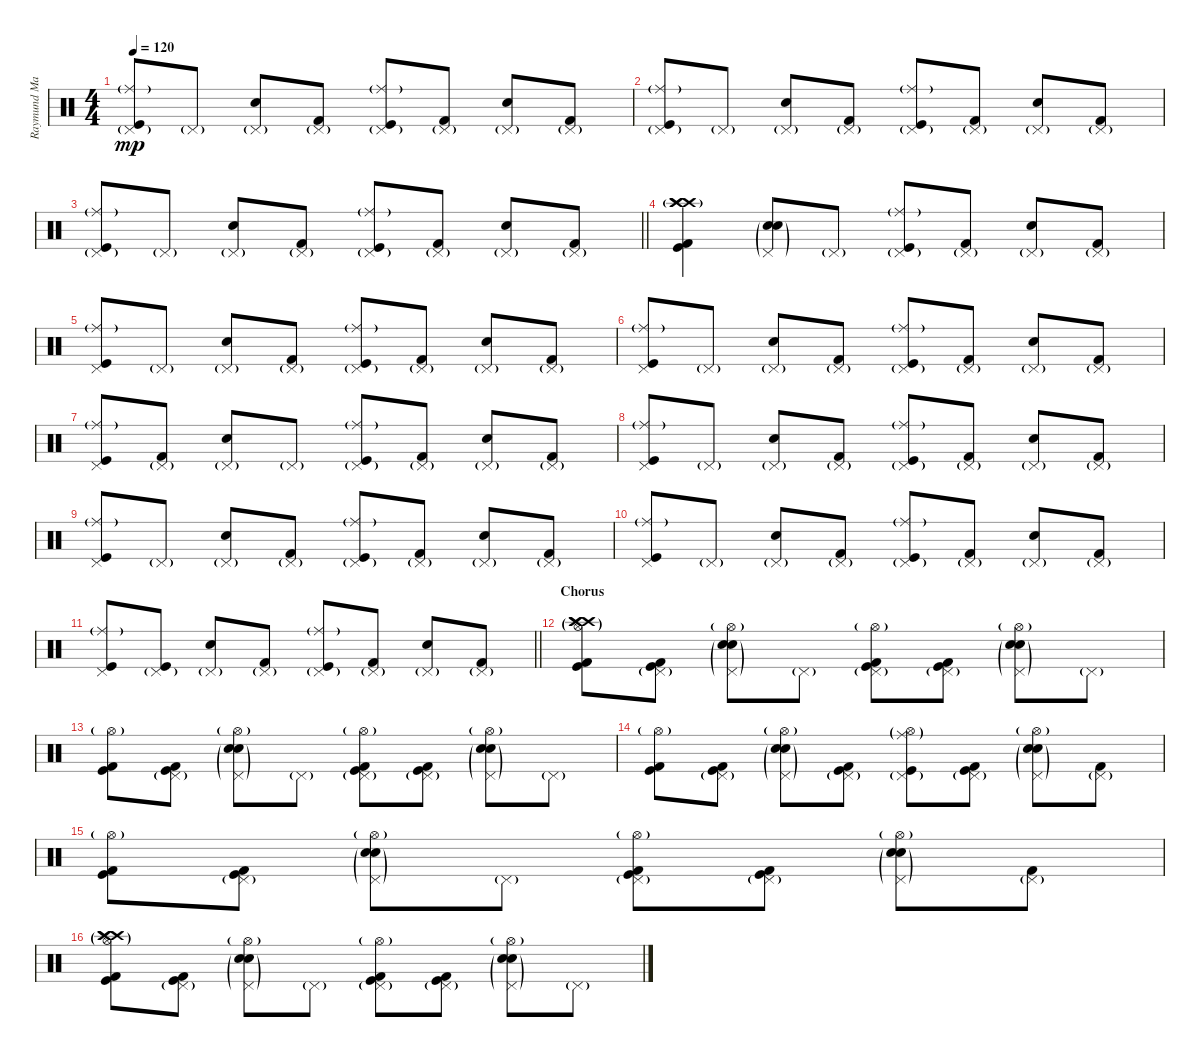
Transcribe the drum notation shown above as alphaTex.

\track ("Raymund Marasigan(Drums)" "Raymund Ma") {instrument percussion}
\staff {score}
\articulation defaults
\ts (4 4)
\tempo 120
\clef neutral
\ks c
("Pedal Hi-Hat (hit)"{g} "Kick (hit)" "Ride (middle)"{g}).8{dy mp} "Pedal Hi-Hat (hit)"{g}.8 ("Pedal Hi-Hat (hit)"{g} "Electric Snare (hit)").8 ("Pedal Hi-Hat (hit)"{g} "Kick (hit) 2").8 ("Pedal Hi-Hat (hit)"{g} "Kick (hit)" "Ride (middle)"{g}).8 ("Pedal Hi-Hat (hit)"{g} "Kick (hit) 2").8 ("Pedal Hi-Hat (hit)"{g} "Electric Snare (hit)").8 ("Pedal Hi-Hat (hit)"{g} "Kick (hit) 2").8 |
("Pedal Hi-Hat (hit)"{g} "Kick (hit)" "Ride (middle)"{g}).8 "Pedal Hi-Hat (hit)"{g}.8 ("Pedal Hi-Hat (hit)"{g} "Electric Snare (hit)").8 ("Pedal Hi-Hat (hit)"{g} "Kick (hit) 2").8 ("Pedal Hi-Hat (hit)"{g} "Kick (hit)" "Ride (middle)"{g}).8 ("Pedal Hi-Hat (hit)"{g} "Kick (hit) 2").8 ("Pedal Hi-Hat (hit)"{g} "Electric Snare (hit)").8 ("Pedal Hi-Hat (hit)"{g} "Kick (hit) 2").8 |
\barLineRight lightlight
("Pedal Hi-Hat (hit)"{g} "Kick (hit)" "Ride (middle)"{g}).8 "Pedal Hi-Hat (hit)"{g}.8 ("Pedal Hi-Hat (hit)"{g} "Electric Snare (hit)").8 ("Pedal Hi-Hat (hit)"{g} "Kick (hit) 2").8 ("Pedal Hi-Hat (hit)"{g} "Kick (hit)" "Ride (middle)"{g}).8 ("Pedal Hi-Hat (hit)"{g} "Kick (hit) 2").8 ("Pedal Hi-Hat (hit)"{g} "Electric Snare (hit)").8 ("Pedal Hi-Hat (hit)"{g} "Kick (hit) 2").8 |
\section ("" "")
("Crash high (hit)"{g} "Crash high (hit)"{g} "Crash high (hit)"{g} "Kick (hit) 2" "Kick (hit)").4 ("Pedal Hi-Hat (hit)"{g} "Electric Snare (hit)" "Snare (hit) 2"{g}).8 "Pedal Hi-Hat (hit)"{g}.8 ("Pedal Hi-Hat (hit)"{g} "Kick (hit)" "Ride (middle)"{g}).8 ("Pedal Hi-Hat (hit)"{g} "Kick (hit) 2").8 ("Pedal Hi-Hat (hit)"{g} "Electric Snare (hit)").8 ("Pedal Hi-Hat (hit)"{g} "Kick (hit) 2").8 |
("Pedal Hi-Hat (hit)" "Kick (hit)" "Ride (middle)"{g}).8 "Pedal Hi-Hat (hit)"{g}.8 ("Pedal Hi-Hat (hit)"{g} "Electric Snare (hit)").8 ("Pedal Hi-Hat (hit)"{g} "Kick (hit) 2").8 ("Pedal Hi-Hat (hit)"{g} "Kick (hit)" "Ride (middle)"{g}).8 ("Pedal Hi-Hat (hit)"{g} "Kick (hit) 2").8 ("Pedal Hi-Hat (hit)"{g} "Electric Snare (hit)").8 ("Pedal Hi-Hat (hit)"{g} "Kick (hit) 2").8 |
("Pedal Hi-Hat (hit)" "Kick (hit)" "Ride (middle)"{g}).8 "Pedal Hi-Hat (hit)"{g}.8 ("Pedal Hi-Hat (hit)"{g} "Electric Snare (hit)").8 ("Pedal Hi-Hat (hit)"{g} "Kick (hit) 2").8 ("Pedal Hi-Hat (hit)"{g} "Kick (hit)" "Ride (middle)"{g}).8 ("Pedal Hi-Hat (hit)"{g} "Kick (hit) 2").8 ("Pedal Hi-Hat (hit)"{g} "Electric Snare (hit)").8 ("Pedal Hi-Hat (hit)"{g} "Kick (hit) 2").8 |
("Pedal Hi-Hat (hit)" "Kick (hit)" "Ride (middle)"{g}).8 ("Pedal Hi-Hat (hit)"{g} "Kick (hit) 2").8 ("Pedal Hi-Hat (hit)"{g} "Electric Snare (hit)").8 "Pedal Hi-Hat (hit)"{g}.8 ("Pedal Hi-Hat (hit)"{g} "Kick (hit)" "Ride (middle)"{g}).8 ("Pedal Hi-Hat (hit)"{g} "Kick (hit) 2").8 ("Pedal Hi-Hat (hit)"{g} "Electric Snare (hit)").8 ("Pedal Hi-Hat (hit)"{g} "Kick (hit) 2").8 |
("Pedal Hi-Hat (hit)" "Kick (hit)" "Ride (middle)"{g}).8 "Pedal Hi-Hat (hit)"{g}.8 ("Pedal Hi-Hat (hit)"{g} "Electric Snare (hit)").8 ("Pedal Hi-Hat (hit)"{g} "Kick (hit) 2").8 ("Pedal Hi-Hat (hit)"{g} "Kick (hit)" "Ride (middle)"{g}).8 ("Pedal Hi-Hat (hit)"{g} "Kick (hit) 2").8 ("Pedal Hi-Hat (hit)"{g} "Electric Snare (hit)").8 ("Pedal Hi-Hat (hit)"{g} "Kick (hit) 2").8 |
("Pedal Hi-Hat (hit)" "Kick (hit)" "Ride (middle)"{g}).8 "Pedal Hi-Hat (hit)"{g}.8 ("Pedal Hi-Hat (hit)"{g} "Electric Snare (hit)").8 ("Pedal Hi-Hat (hit)"{g} "Kick (hit) 2").8 ("Pedal Hi-Hat (hit)"{g} "Kick (hit)" "Ride (middle)"{g}).8 ("Pedal Hi-Hat (hit)"{g} "Kick (hit) 2").8 ("Pedal Hi-Hat (hit)"{g} "Electric Snare (hit)").8 ("Pedal Hi-Hat (hit)"{g} "Kick (hit) 2").8 |
("Pedal Hi-Hat (hit)" "Kick (hit)" "Ride (middle)"{g}).8 "Pedal Hi-Hat (hit)"{g}.8 ("Pedal Hi-Hat (hit)"{g} "Electric Snare (hit)").8 ("Pedal Hi-Hat (hit)"{g} "Kick (hit) 2").8 ("Pedal Hi-Hat (hit)"{g} "Kick (hit)" "Ride (middle)"{g}).8 ("Pedal Hi-Hat (hit)"{g} "Kick (hit) 2").8 ("Pedal Hi-Hat (hit)"{g} "Electric Snare (hit)").8 ("Pedal Hi-Hat (hit)"{g} "Kick (hit) 2").8 |
\barLineRight lightlight
("Pedal Hi-Hat (hit)" "Kick (hit)" "Ride (middle)"{g}).8 ("Pedal Hi-Hat (hit)"{g} "Kick (hit)").8 ("Pedal Hi-Hat (hit)"{g} "Electric Snare (hit)").8 ("Pedal Hi-Hat (hit)"{g} "Kick (hit) 2").8 ("Pedal Hi-Hat (hit)"{g} "Kick (hit)" "Ride (middle)"{g}).8 ("Pedal Hi-Hat (hit)"{g} "Kick (hit) 2").8 ("Pedal Hi-Hat (hit)"{g} "Electric Snare (hit)").8 ("Pedal Hi-Hat (hit)"{g} "Kick (hit) 2").8 |
\section ("" "Chorus")
("Crash high (hit)"{g} "Crash high (hit)"{g} "Crash high (hit)"{g} "Kick (hit) 2" "Kick (hit)" "Hi-Hat (open)"{g}).8 ("Pedal Hi-Hat (hit)"{g} "Kick (hit) 2" "Kick (hit)").8 ("Pedal Hi-Hat (hit)"{g} "Electric Snare (hit)" "Snare (hit) 2"{g} "Hi-Hat (open)"{g}).8 "Pedal Hi-Hat (hit)"{g}.8 ("Pedal Hi-Hat (hit)"{g} "Kick (hit) 2" "Kick (hit)" "Hi-Hat (open)"{g}).8 ("Pedal Hi-Hat (hit)"{g} "Kick (hit) 2" "Kick (hit)").8 ("Pedal Hi-Hat (hit)"{g} "Electric Snare (hit)" "Snare (hit) 2"{g} "Hi-Hat (open)"{g}).8 "Pedal Hi-Hat (hit)"{g}.8 |
("Kick (hit) 2" "Kick (hit)" "Hi-Hat (open)"{g}).8 ("Pedal Hi-Hat (hit)"{g} "Kick (hit) 2" "Kick (hit)").8 ("Pedal Hi-Hat (hit)"{g} "Electric Snare (hit)" "Snare (hit) 2"{g} "Hi-Hat (open)"{g}).8 "Pedal Hi-Hat (hit)"{g}.8 ("Pedal Hi-Hat (hit)"{g} "Kick (hit) 2" "Kick (hit)" "Hi-Hat (open)"{g}).8 ("Pedal Hi-Hat (hit)"{g} "Kick (hit) 2" "Kick (hit)").8 ("Pedal Hi-Hat (hit)"{g} "Electric Snare (hit)" "Snare (hit) 2"{g} "Hi-Hat (open)"{g}).8 "Pedal Hi-Hat (hit)"{g}.8 |
("Kick (hit) 2" "Kick (hit)" "Hi-Hat (open)"{g}).8 ("Pedal Hi-Hat (hit)"{g} "Kick (hit) 2" "Kick (hit)").8 ("Pedal Hi-Hat (hit)"{g} "Electric Snare (hit)" "Snare (hit) 2"{g} "Hi-Hat (open)"{g}).8 ("Pedal Hi-Hat (hit)"{g} "Kick (hit) 2" "Kick (hit)").8 ("Pedal Hi-Hat (hit)"{g} "Kick (hit)" "Ride (middle)"{g} "Hi-Hat (open)"{g}).8 ("Pedal Hi-Hat (hit)"{g} "Kick (hit) 2" "Kick (hit)").8 ("Pedal Hi-Hat (hit)"{g} "Electric Snare (hit)" "Snare (hit) 2"{g} "Hi-Hat (open)"{g}).8 ("Pedal Hi-Hat (hit)"{g} "Kick (hit) 2").8 |
("Kick (hit) 2" "Kick (hit)" "Hi-Hat (open)"{g}).8 ("Pedal Hi-Hat (hit)"{g} "Kick (hit) 2" "Kick (hit)").8 ("Pedal Hi-Hat (hit)"{g} "Electric Snare (hit)" "Snare (hit) 2"{g} "Hi-Hat (open)"{g}).8 "Pedal Hi-Hat (hit)"{g}.8 ("Pedal Hi-Hat (hit)"{g} "Kick (hit) 2" "Kick (hit)" "Hi-Hat (open)"{g}).8 ("Pedal Hi-Hat (hit)"{g} "Kick (hit) 2" "Kick (hit)").8 ("Pedal Hi-Hat (hit)"{g} "Electric Snare (hit)" "Snare (hit) 2"{g} "Hi-Hat (open)"{g}).8 ("Pedal Hi-Hat (hit)"{g} "Kick (hit) 2").8 |
("Crash high (hit)"{g} "Crash high (hit)"{g} "Crash high (hit)"{g} "Kick (hit) 2" "Kick (hit)" "Hi-Hat (open)"{g}).8 ("Pedal Hi-Hat (hit)"{g} "Kick (hit) 2" "Kick (hit)").8 ("Pedal Hi-Hat (hit)"{g} "Electric Snare (hit)" "Snare (hit) 2"{g} "Hi-Hat (open)"{g}).8 "Pedal Hi-Hat (hit)"{g}.8 ("Pedal Hi-Hat (hit)"{g} "Kick (hit) 2" "Kick (hit)" "Hi-Hat (open)"{g}).8 ("Pedal Hi-Hat (hit)"{g} "Kick (hit) 2" "Kick (hit)").8 ("Pedal Hi-Hat (hit)"{g} "Electric Snare (hit)" "Snare (hit) 2"{g} "Hi-Hat (open)"{g}).8 "Pedal Hi-Hat (hit)"{g}.8
